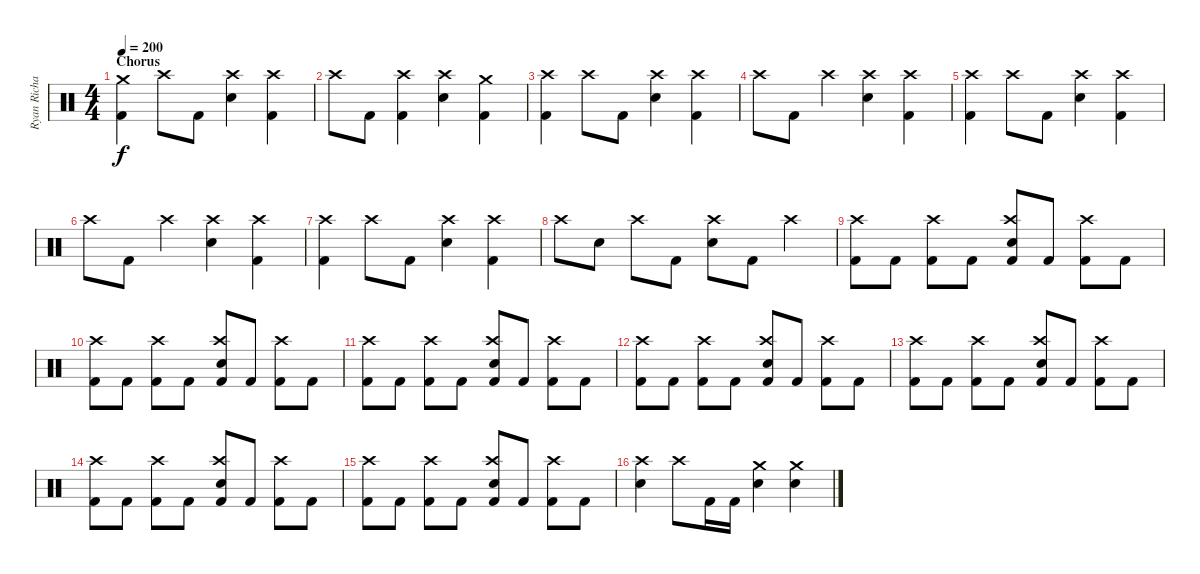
\track ("Ryan Richards" "Ryan Richa") {instrument percussion}
\staff {score}
\articulation defaults
\ts (4 4)
\section ("" "Chorus")
\tempo 200
\clef neutral
\ks c
("Crash medium (hit)" "Kick (hit) 2").4{dy f} "Crash high (hit)".8 "Kick (hit) 2".8 ("Crash high (hit)" "Electric Snare (hit)").4 ("Crash high (hit)" "Kick (hit) 2").4 |
"Crash high (hit)".8 "Kick (hit) 2".8 ("Crash high (hit)" "Kick (hit) 2").4 ("Crash high (hit)" "Electric Snare (hit)").4 ("Crash medium (hit)" "Kick (hit) 2").4 |
("Crash high (hit)" "Kick (hit) 2").4 "Crash high (hit)".8 "Kick (hit) 2".8 ("Crash high (hit)" "Electric Snare (hit)").4 ("Crash high (hit)" "Kick (hit) 2").4 |
"Crash high (hit)".8 "Kick (hit) 2".8 "Crash high (hit)".4 ("Crash high (hit)" "Electric Snare (hit)").4 ("Crash high (hit)" "Kick (hit) 2").4 |
("Crash high (hit)" "Kick (hit) 2").4 "Crash high (hit)".8 "Kick (hit) 2".8 ("Crash high (hit)" "Electric Snare (hit)").4 ("Crash high (hit)" "Kick (hit) 2").4 |
"Crash high (hit)".8 "Kick (hit) 2".8 "Crash high (hit)".4 ("Crash high (hit)" "Electric Snare (hit)").4 ("Crash high (hit)" "Kick (hit) 2").4 |
("Crash high (hit)" "Kick (hit) 2").4 "Crash high (hit)".8 "Kick (hit) 2".8 ("Crash high (hit)" "Electric Snare (hit)").4 ("Crash high (hit)" "Kick (hit) 2").4 |
"Crash high (hit)".8 "Electric Snare (hit)".8 "Crash high (hit)".8 "Kick (hit) 2".8 ("Crash high (hit)" "Electric Snare (hit)").8 "Kick (hit) 2".8 "Crash high (hit)".4 |
("Crash high (hit)" "Kick (hit) 2").8 "Kick (hit) 2".8 ("Crash high (hit)" "Kick (hit) 2").8 "Kick (hit) 2".8 ("Crash high (hit)" "Electric Snare (hit)" "Kick (hit) 2").8 "Kick (hit) 2".8 ("Crash high (hit)" "Kick (hit) 2").8 "Kick (hit) 2".8 |
("Crash high (hit)" "Kick (hit) 2").8 "Kick (hit) 2".8 ("Crash high (hit)" "Kick (hit) 2").8 "Kick (hit) 2".8 ("Crash high (hit)" "Electric Snare (hit)" "Kick (hit) 2").8 "Kick (hit) 2".8 ("Crash high (hit)" "Kick (hit) 2").8 "Kick (hit) 2".8 |
("Crash high (hit)" "Kick (hit) 2").8 "Kick (hit) 2".8 ("Crash high (hit)" "Kick (hit) 2").8 "Kick (hit) 2".8 ("Crash high (hit)" "Electric Snare (hit)" "Kick (hit) 2").8 "Kick (hit) 2".8 ("Crash high (hit)" "Kick (hit) 2").8 "Kick (hit) 2".8 |
("Crash high (hit)" "Kick (hit) 2").8 "Kick (hit) 2".8 ("Crash high (hit)" "Kick (hit) 2").8 "Kick (hit) 2".8 ("Crash high (hit)" "Electric Snare (hit)" "Kick (hit) 2").8 "Kick (hit) 2".8 ("Crash high (hit)" "Kick (hit) 2").8 "Kick (hit) 2".8 |
("Crash high (hit)" "Kick (hit) 2").8 "Kick (hit) 2".8 ("Crash high (hit)" "Kick (hit) 2").8 "Kick (hit) 2".8 ("Crash high (hit)" "Electric Snare (hit)" "Kick (hit) 2").8 "Kick (hit) 2".8 ("Crash high (hit)" "Kick (hit) 2").8 "Kick (hit) 2".8 |
("Crash high (hit)" "Kick (hit) 2").8 "Kick (hit) 2".8 ("Crash high (hit)" "Kick (hit) 2").8 "Kick (hit) 2".8 ("Crash high (hit)" "Electric Snare (hit)" "Kick (hit) 2").8 "Kick (hit) 2".8 ("Crash high (hit)" "Kick (hit) 2").8 "Kick (hit) 2".8 |
("Crash high (hit)" "Kick (hit) 2").8 "Kick (hit) 2".8 ("Crash high (hit)" "Kick (hit) 2").8 "Kick (hit) 2".8 ("Crash high (hit)" "Electric Snare (hit)" "Kick (hit) 2").8 "Kick (hit) 2".8 ("Crash high (hit)" "Kick (hit) 2").8 "Kick (hit) 2".8 |
("Crash high (hit)" "Electric Snare (hit)").4 "Crash high (hit)".8 "Kick (hit) 2".16 "Kick (hit) 2".16 ("Crash medium (hit)" "Electric Snare (hit)").4 ("Crash medium (hit)" "Electric Snare (hit)").4
